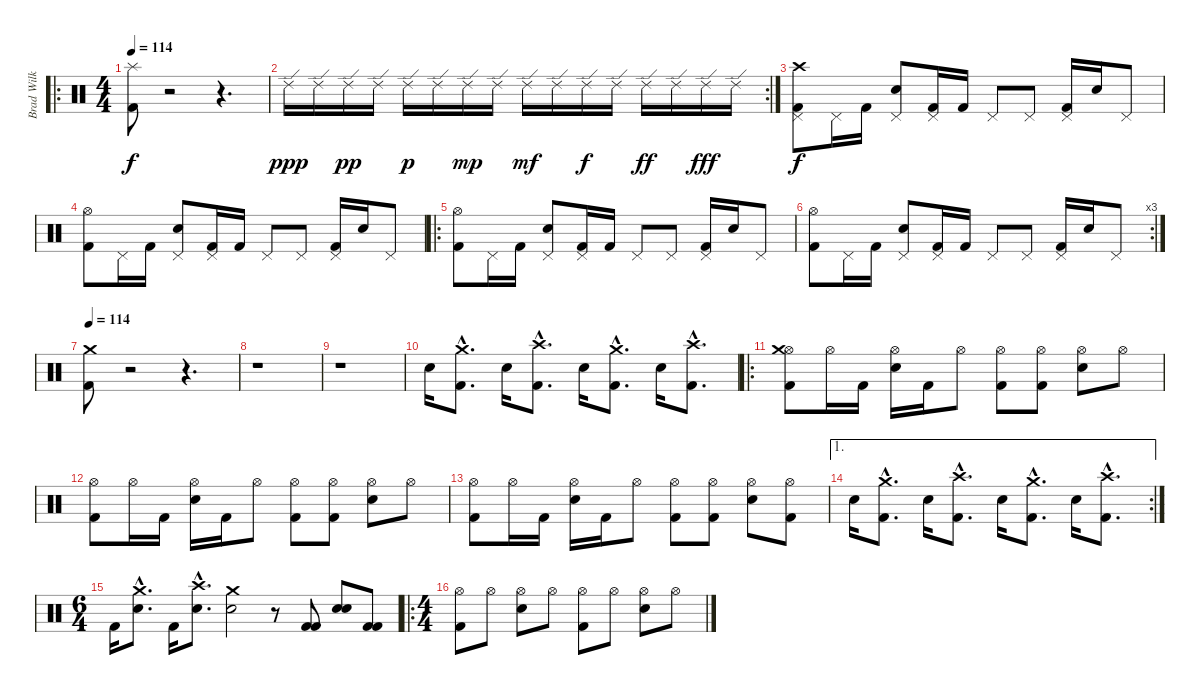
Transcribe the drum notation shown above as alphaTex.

\track ("Brad Wilk" "Brad Wilk") {instrument percussion}
\staff {score}
\articulation defaults
\ro
\ts (4 4)
\tempo 114
\tempo 80
\tempo 114
\clef neutral
\ks c
("Splash (hit)" "Kick (hit) 2").8{dy f} r.2 r.4{d} |
\rc 2 "Ride (edge) 2".16{dy ppp} "Ride (edge) 2".16 "Ride (edge) 2".16{dy pp} "Ride (edge) 2".16 "Ride (edge) 2".16{dy p} "Ride (edge) 2".16 "Ride (edge) 2".16{dy mp} "Ride (edge) 2".16 "Ride (edge) 2".16{dy mf} "Ride (edge) 2".16 "Ride (edge) 2".16{dy f} "Ride (edge) 2".16 "Ride (edge) 2".16{dy ff} "Ride (edge) 2".16 "Ride (edge) 2".16{dy fff} "Ride (edge) 2".16
|
("Pedal Hi-Hat (hit)" "Crash high (hit)" "Kick (hit) 2").8{dy f} "Pedal Hi-Hat (hit)".16 "Kick (hit) 2".16 ("Pedal Hi-Hat (hit)" "Snare (hit) 2").8 ("Pedal Hi-Hat (hit)" "Kick (hit) 2").16 "Kick (hit) 2".16 "Pedal Hi-Hat (hit)".8 "Pedal Hi-Hat (hit)".8 ("Pedal Hi-Hat (hit)" "Kick (hit) 2").16 "Snare (hit) 2".16 "Pedal Hi-Hat (hit)".8 |
("Hi-Hat (open)" "Kick (hit) 2").8 "Pedal Hi-Hat (hit)".16 "Kick (hit) 2".16 ("Pedal Hi-Hat (hit)" "Snare (hit) 2").8 ("Pedal Hi-Hat (hit)" "Kick (hit) 2").16 "Kick (hit) 2".16 "Pedal Hi-Hat (hit)".8 "Pedal Hi-Hat (hit)".8 ("Pedal Hi-Hat (hit)" "Kick (hit) 2").16 "Snare (hit) 2".16 "Pedal Hi-Hat (hit)".8 |
\ro
("Hi-Hat (open)" "Kick (hit) 2").8 "Pedal Hi-Hat (hit)".16 "Kick (hit) 2".16 ("Pedal Hi-Hat (hit)" "Snare (hit) 2").8 ("Pedal Hi-Hat (hit)" "Kick (hit) 2").16 "Kick (hit) 2".16 "Pedal Hi-Hat (hit)".8 "Pedal Hi-Hat (hit)".8 ("Pedal Hi-Hat (hit)" "Kick (hit) 2").16 "Snare (hit) 2".16 "Pedal Hi-Hat (hit)".8 |
\rc 3
("Hi-Hat (open)" "Kick (hit) 2").8 "Pedal Hi-Hat (hit)".16 "Kick (hit) 2".16 ("Pedal Hi-Hat (hit)" "Snare (hit) 2").8 ("Pedal Hi-Hat (hit)" "Kick (hit) 2").16 "Kick (hit) 2".16 "Pedal Hi-Hat (hit)".8 "Pedal Hi-Hat (hit)".8 ("Pedal Hi-Hat (hit)" "Kick (hit) 2").16 "Snare (hit) 2".16 "Pedal Hi-Hat (hit)".8 |
\tempo 114
("Crash medium (hit)" "Kick (hit) 2").8 r.2 r.4{d} |
r.1 |
r.1 |
"Snare (hit) 2".16 ("Kick (hit) 2"{hac} "Crash medium (hit)"{hac}).8{d} "Snare (hit) 2".16 ("Kick (hit) 2"{hac} "Crash high (hit)"{hac}).8{d} "Snare (hit) 2".16 ("Kick (hit) 2"{hac} "Crash medium (hit)"{hac}).8{d} "Snare (hit) 2".16 ("Kick (hit) 2"{hac} "Crash high (hit)"{hac}).8{d} |
\ro
("Hi-Hat (open)" "Kick (hit) 2" "Crash medium (hit)").8 "Hi-Hat (open)".16 "Kick (hit) 2".16 ("Hi-Hat (open)" "Snare (hit) 2").16 "Kick (hit) 2".16 "Hi-Hat (open)".8 ("Hi-Hat (open)" "Kick (hit) 2").8 ("Hi-Hat (open)" "Kick (hit) 2").8 ("Hi-Hat (open)" "Snare (hit) 2").8 "Hi-Hat (open)".8 |
("Hi-Hat (open)" "Kick (hit) 2").8 "Hi-Hat (open)".16 "Kick (hit) 2".16 ("Hi-Hat (open)" "Snare (hit) 2").16 "Kick (hit) 2".16 "Hi-Hat (open)".8 ("Hi-Hat (open)" "Kick (hit) 2").8 ("Hi-Hat (open)" "Kick (hit) 2").8 ("Hi-Hat (open)" "Snare (hit) 2").8 "Hi-Hat (open)".8 |
("Hi-Hat (open)" "Kick (hit) 2").8 "Hi-Hat (open)".16 "Kick (hit) 2".16 ("Hi-Hat (open)" "Snare (hit) 2").16 "Kick (hit) 2".16 "Hi-Hat (open)".8 ("Hi-Hat (open)" "Kick (hit) 2").8 ("Hi-Hat (open)" "Kick (hit) 2").8 ("Hi-Hat (open)" "Snare (hit) 2").8 ("Hi-Hat (open)" "Kick (hit) 2").8 |
\ae 1
\rc 2 "Snare (hit) 2".16
("Kick (hit) 2"{hac} "Crash medium (hit)"{hac}).8{d} "Snare (hit) 2".16 ("Kick (hit) 2"{hac} "Crash high (hit)"{hac}).8{d} "Snare (hit) 2".16 ("Kick (hit) 2"{hac} "Crash medium (hit)"{hac}).8{d} "Snare (hit) 2".16 ("Kick (hit) 2"{hac} "Crash high (hit)"{hac}).8{d} |
\ts (6 4)
"Kick (hit) 2".16 ("Snare (hit) 2"{hac} "Crash medium (hit)"{hac}).8{d} "Kick (hit) 2".16 ("Snare (hit) 2"{hac} "Crash high (hit)"{hac}).8{d} ("Snare (hit) 2" "Crash medium (hit)").2 r.8 ("Kick (hit) 2" "Kick (hit) 2").8 ("Snare (hit) 2" "Snare (hit) 2").8 ("Kick (hit) 2" "Kick (hit) 2").8 |
\ro
\ts (4 4)
("Hi-Hat (open)" "Kick (hit) 2").8 "Hi-Hat (open)".8 ("Hi-Hat (open)" "Snare (hit) 2").8 "Hi-Hat (open)".8 ("Hi-Hat (open)" "Kick (hit) 2").8 "Hi-Hat (open)".8 ("Hi-Hat (open)" "Snare (hit) 2").8 "Hi-Hat (open)".8
